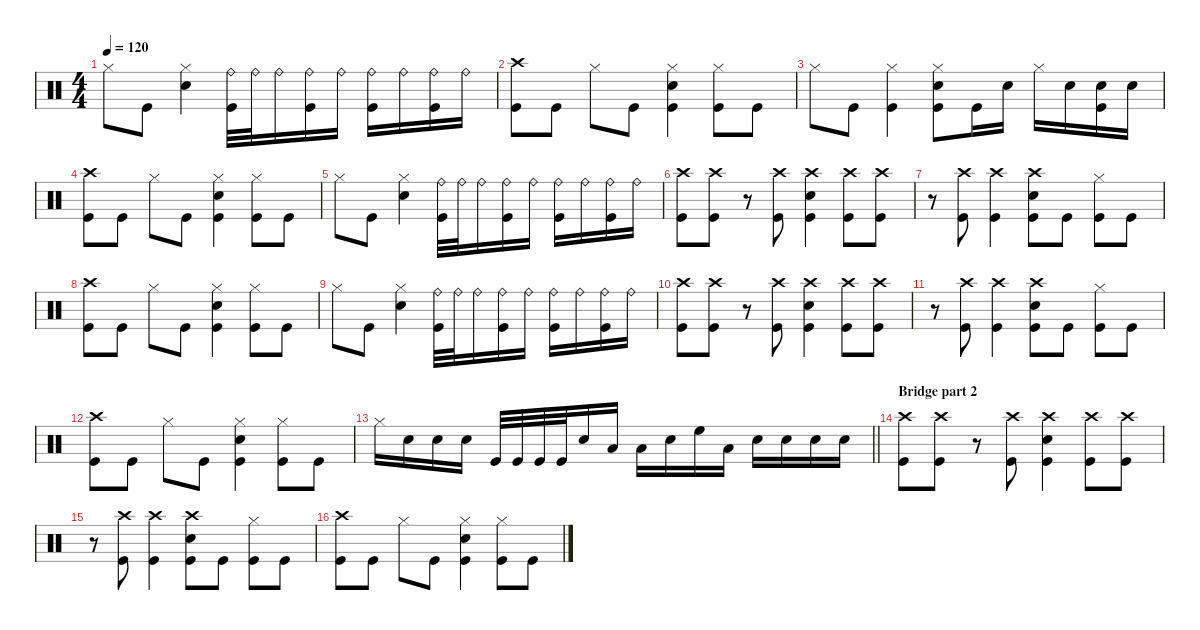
\defaultSystemsLayout 4
\hideDynamics
\bracketExtendMode nobrackets
\singleTrackTrackNamePolicy hidden
\multiTrackTrackNamePolicy hidden
\firstSystemTrackNameMode fullname
\firstSystemTrackNameOrientation horizontal
\otherSystemsTrackNameOrientation horizontal
\track ("Drums" "drm.") {instrument percussion}
\staff {score}
\articulation defaults
\ts (4 4)
\tempo 120
\clef neutral
\ks c "Hi-Hat (closed)".8{dy mf beam Down} "Kick (hit)".8{beam Down}
("Snare (hit) 2" "Hi-Hat (closed)").4{beam Down} ("Kick (hit)" "Ride (bell)").32{beam Down} "Ride (bell)".32{beam Down} "Ride (bell)".16{beam Down} ("Kick (hit)" "Ride (bell)").16{beam Down} "Ride (bell)".16{beam Down} ("Kick (hit)" "Ride (bell)").16{beam Down} "Ride (bell)".16{beam Down} ("Kick (hit)" "Ride (bell)").16{beam Down} "Ride (bell)".16{beam Down} |
("Kick (hit)" "Crash high (hit)").8{beam Down} "Kick (hit)".8{beam Down} "Hi-Hat (closed)".8{beam Down} "Kick (hit)".8{beam Down} ("Kick (hit)" "Snare (hit) 2" "Hi-Hat (closed)").4{beam Down} ("Kick (hit)" "Hi-Hat (closed)").8{beam Down} "Kick (hit)".8{beam Down} |
"Hi-Hat (closed)".8{beam Down} "Kick (hit)".8{beam Down} ("Hi-Hat (closed)" "Kick (hit)").4{beam Down} ("Snare (hit) 2" "Hi-Hat (closed)" "Kick (hit)").8{beam Down} "Kick (hit)".16{beam Down} "Snare (hit) 2".16{beam Down} "Hi-Hat (closed)".16{beam Down} "Snare (hit) 2".16{beam Down} ("Snare (hit) 2" "Kick (hit)").16{beam Down} "Snare (hit) 2".16{beam Down} |
("Crash high (hit)" "Kick (hit)").8{beam Down} "Kick (hit)".8{beam Down} "Hi-Hat (closed)".8{beam Down} "Kick (hit)".8{beam Down} ("Snare (hit) 2" "Hi-Hat (closed)" "Kick (hit)").4{beam Down} ("Hi-Hat (closed)" "Kick (hit)").8{beam Down} "Kick (hit)".8{beam Down} |
"Hi-Hat (closed)".8{beam Down} "Kick (hit)".8{beam Down} ("Snare (hit) 2" "Hi-Hat (closed)").4{beam Down} ("Kick (hit)" "Ride (bell)").32{beam Down} "Ride (bell)".32{beam Down} "Ride (bell)".16{beam Down} ("Kick (hit)" "Ride (bell)").16{beam Down} "Ride (bell)".16{beam Down} ("Kick (hit)" "Ride (bell)").16{beam Down} "Ride (bell)".16{beam Down} ("Kick (hit)" "Ride (bell)").16{beam Down} "Ride (bell)".16{beam Down} |
("Kick (hit)" "Crash high (hit)").8{beam Down} ("Kick (hit)" "Crash high (hit)").8{beam Down} r.8{beam Down} ("Kick (hit)" "Crash high (hit)").8{beam Down} ("Kick (hit)" "Snare (hit) 2" "Crash high (hit)").4{beam Down} ("Kick (hit)" "Crash high (hit)").8{beam Down} ("Kick (hit)" "Crash high (hit)").8{beam Down} |
r.8{beam Down} ("Kick (hit)" "Crash high (hit)").8{beam Down} ("Kick (hit)" "Crash high (hit)").4{beam Down} ("Kick (hit)" "Snare (hit) 2" "Crash high (hit)").8{beam Down} "Kick (hit)".8{beam Down} ("Kick (hit)" "Hi-Hat (closed)").8{beam Down} "Kick (hit)".8{beam Down} |
("Crash high (hit)" "Kick (hit)").8{beam Down} "Kick (hit)".8{beam Down} "Hi-Hat (closed)".8{beam Down} "Kick (hit)".8{beam Down} ("Snare (hit) 2" "Hi-Hat (closed)" "Kick (hit)").4{beam Down} ("Hi-Hat (closed)" "Kick (hit)").8{beam Down} "Kick (hit)".8{beam Down} |
"Hi-Hat (closed)".8{beam Down} "Kick (hit)".8{beam Down} ("Snare (hit) 2" "Hi-Hat (closed)").4{beam Down} ("Kick (hit)" "Ride (bell)").32{beam Down} "Ride (bell)".32{beam Down} "Ride (bell)".16{beam Down} ("Kick (hit)" "Ride (bell)").16{beam Down} "Ride (bell)".16{beam Down} ("Kick (hit)" "Ride (bell)").16{beam Down} "Ride (bell)".16{beam Down} ("Kick (hit)" "Ride (bell)").16{beam Down} "Ride (bell)".16{beam Down} |
("Crash high (hit)" "Kick (hit)").8{beam Down} ("Crash high (hit)" "Kick (hit)").8{beam Down} r.8{beam Down} ("Crash high (hit)" "Kick (hit)").8{beam Down} ("Snare (hit) 2" "Crash high (hit)" "Kick (hit)").4{beam Down} ("Crash high (hit)" "Kick (hit)").8{beam Down} ("Crash high (hit)" "Kick (hit)").8{beam Down} |
r.8{beam Down} ("Crash high (hit)" "Kick (hit)").8{beam Down} ("Crash high (hit)" "Kick (hit)").4{beam Down} ("Snare (hit) 2" "Crash high (hit)" "Kick (hit)").8{beam Down} "Kick (hit)".8{beam Down} ("Hi-Hat (closed)" "Kick (hit)").8{beam Down} "Kick (hit)".8{beam Down} |
("Kick (hit)" "Crash high (hit)").8{beam Down} "Kick (hit)".8{beam Down} "Hi-Hat (closed)".8{beam Down} "Kick (hit)".8{beam Down} ("Kick (hit)" "Snare (hit) 2" "Hi-Hat (closed)").4{beam Down} ("Kick (hit)" "Hi-Hat (closed)").8{beam Down} "Kick (hit)".8{beam Down} |
\barLineRight lightlight "Hi-Hat (closed)".16{beam Down} "Snare (hit) 2".16{beam Down} "Snare (hit) 2".16{beam Down} "Snare (hit) 2".16{beam Down} "Kick (hit)".32{beam Up} "Kick (hit)".32{beam Up} "Kick (hit)".32{beam Up} "Kick (hit)".32{beam Up} "Snare (hit) 2".16{beam Up} "Low Floor Tom (hit)".16{beam Up} "Low Tom (hit)".16{beam Down} "Snare (hit) 2".16{beam Down} "High Floor Tom (hit)".16{beam Down} "Low Tom (hit)".16{beam Down} "Snare (hit) 2".16{beam Down} "Snare (hit) 2".16{beam Down} "Snare (hit) 2".16{beam Down} "Snare (hit) 2".16{beam Down}
|
\section ("" "Bridge part 2")
("Kick (hit)" "Crash high (hit)").8{beam Down} ("Kick (hit)" "Crash high (hit)").8{beam Down} r.8{beam Down} ("Kick (hit)" "Crash high (hit)").8{beam Down} ("Kick (hit)" "Snare (hit) 2" "Crash high (hit)").4{beam Down} ("Kick (hit)" "Crash high (hit)").8{beam Down} ("Kick (hit)" "Crash high (hit)").8{beam Down} |
r.8{beam Down} ("Kick (hit)" "Crash high (hit)").8{beam Down} ("Kick (hit)" "Crash high (hit)").4{beam Down} ("Kick (hit)" "Snare (hit) 2" "Crash high (hit)").8{beam Down} "Kick (hit)".8{beam Down} ("Kick (hit)" "Hi-Hat (closed)").8{beam Down} "Kick (hit)".8{beam Down} |
("Crash high (hit)" "Kick (hit)").8{beam Down} "Kick (hit)".8{beam Down} "Hi-Hat (closed)".8{beam Down} "Kick (hit)".8{beam Down} ("Snare (hit) 2" "Hi-Hat (closed)" "Kick (hit)").4{beam Down} ("Hi-Hat (closed)" "Kick (hit)").8{beam Down} "Kick (hit)".8{beam Down}
